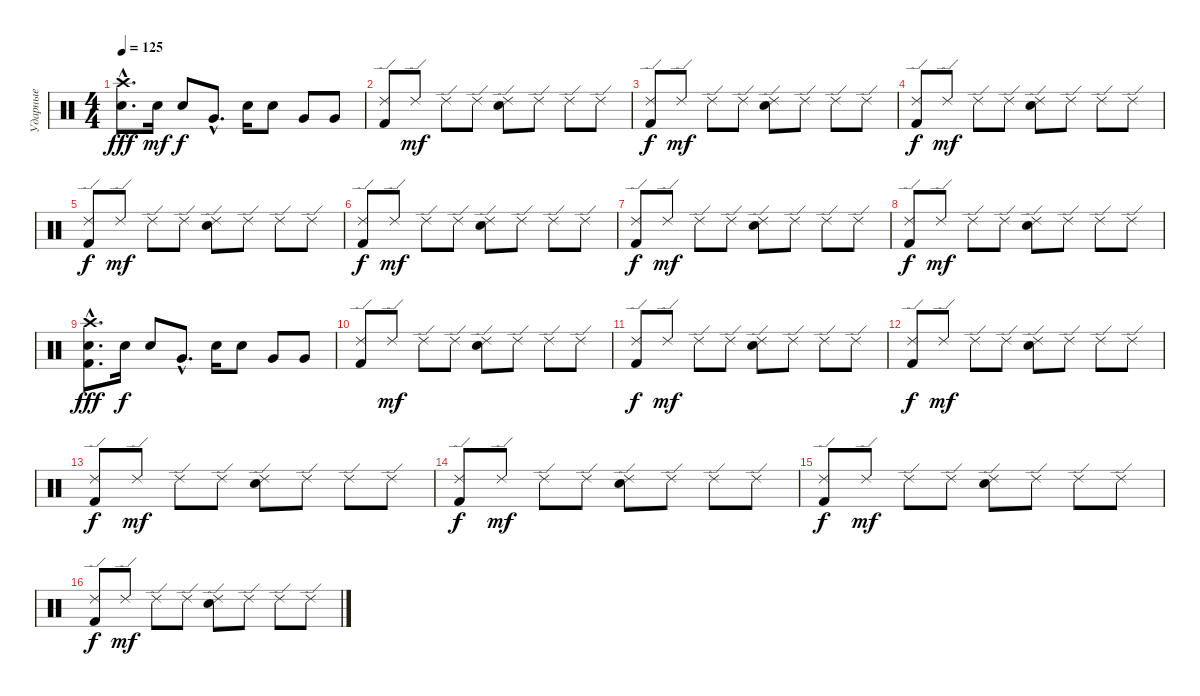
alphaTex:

\track ("Ударные" "Ударные") {instrument percussion}
\staff {score}
\articulation defaults
\ts (4 4)
\tempo 125
\clef neutral
\ks c
("Crash high (hit)"{hac} "Electric Snare (hit)"{hac}).8{d dy fff} "Electric Snare (hit)".16{dy mf} "Electric Snare (hit)".8{dy f} "Very Low Tom (hit)"{hac}.8{d} "Electric Snare (hit)".16 "Electric Snare (hit)".8 "Very Low Tom (hit)".8 "Very Low Tom (hit)".8 |
("Ride (edge) 2" "Kick (hit) 2").8 "Ride (edge) 2".8{dy mf} "Ride (edge) 2".8 "Ride (edge) 2".8 ("Ride (edge) 2" "Electric Snare (hit)").8 "Ride (edge) 2".8 "Ride (edge) 2".8 "Ride (edge) 2".8 |
("Ride (edge) 2" "Kick (hit) 2").8{dy f} "Ride (edge) 2".8{dy mf} "Ride (edge) 2".8 "Ride (edge) 2".8 ("Ride (edge) 2" "Electric Snare (hit)").8 "Ride (edge) 2".8 "Ride (edge) 2".8 "Ride (edge) 2".8 |
("Ride (edge) 2" "Kick (hit) 2").8{dy f} "Ride (edge) 2".8{dy mf} "Ride (edge) 2".8 "Ride (edge) 2".8 ("Ride (edge) 2" "Electric Snare (hit)").8 "Ride (edge) 2".8 "Ride (edge) 2".8 "Ride (edge) 2".8 |
("Ride (edge) 2" "Kick (hit) 2").8{dy f} "Ride (edge) 2".8{dy mf} "Ride (edge) 2".8 "Ride (edge) 2".8 ("Ride (edge) 2" "Electric Snare (hit)").8 "Ride (edge) 2".8 "Ride (edge) 2".8 "Ride (edge) 2".8 |
("Ride (edge) 2" "Kick (hit) 2").8{dy f} "Ride (edge) 2".8{dy mf} "Ride (edge) 2".8 "Ride (edge) 2".8 ("Ride (edge) 2" "Electric Snare (hit)").8 "Ride (edge) 2".8 "Ride (edge) 2".8 "Ride (edge) 2".8 |
("Ride (edge) 2" "Kick (hit) 2").8{dy f} "Ride (edge) 2".8{dy mf} "Ride (edge) 2".8 "Ride (edge) 2".8 ("Ride (edge) 2" "Electric Snare (hit)").8 "Ride (edge) 2".8 "Ride (edge) 2".8 "Ride (edge) 2".8 |
("Ride (edge) 2" "Kick (hit) 2").8{dy f} "Ride (edge) 2".8{dy mf} "Ride (edge) 2".8 "Ride (edge) 2".8 ("Ride (edge) 2" "Electric Snare (hit)").8 "Ride (edge) 2".8 "Ride (edge) 2".8 "Ride (edge) 2".8 |
("Crash high (hit)"{hac} "Electric Snare (hit)"{hac} "Kick (hit) 2"{hac}).8{d dy fff} "Electric Snare (hit)".16{dy f} "Electric Snare (hit)".8 "Very Low Tom (hit)"{hac}.8{d} "Electric Snare (hit)".16 "Electric Snare (hit)".8 "Very Low Tom (hit)".8 "Very Low Tom (hit)".8 |
("Ride (edge) 2" "Kick (hit) 2").8 "Ride (edge) 2".8{dy mf} "Ride (edge) 2".8 "Ride (edge) 2".8 ("Ride (edge) 2" "Electric Snare (hit)").8 "Ride (edge) 2".8 "Ride (edge) 2".8 "Ride (edge) 2".8 |
("Ride (edge) 2" "Kick (hit) 2").8{dy f} "Ride (edge) 2".8{dy mf} "Ride (edge) 2".8 "Ride (edge) 2".8 ("Ride (edge) 2" "Electric Snare (hit)").8 "Ride (edge) 2".8 "Ride (edge) 2".8 "Ride (edge) 2".8 |
("Ride (edge) 2" "Kick (hit) 2").8{dy f} "Ride (edge) 2".8{dy mf} "Ride (edge) 2".8 "Ride (edge) 2".8 ("Ride (edge) 2" "Electric Snare (hit)").8 "Ride (edge) 2".8 "Ride (edge) 2".8 "Ride (edge) 2".8 |
("Ride (edge) 2" "Kick (hit) 2").8{dy f} "Ride (edge) 2".8{dy mf} "Ride (edge) 2".8 "Ride (edge) 2".8 ("Ride (edge) 2" "Electric Snare (hit)").8 "Ride (edge) 2".8 "Ride (edge) 2".8 "Ride (edge) 2".8 |
("Ride (edge) 2" "Kick (hit) 2").8{dy f} "Ride (edge) 2".8{dy mf} "Ride (edge) 2".8 "Ride (edge) 2".8 ("Ride (edge) 2" "Electric Snare (hit)").8 "Ride (edge) 2".8 "Ride (edge) 2".8 "Ride (edge) 2".8 |
("Ride (edge) 2" "Kick (hit) 2").8{dy f} "Ride (edge) 2".8{dy mf} "Ride (edge) 2".8 "Ride (edge) 2".8 ("Ride (edge) 2" "Electric Snare (hit)").8 "Ride (edge) 2".8 "Ride (edge) 2".8 "Ride (edge) 2".8 |
("Ride (edge) 2" "Kick (hit) 2").8{dy f} "Ride (edge) 2".8{dy mf} "Ride (edge) 2".8 "Ride (edge) 2".8 ("Ride (edge) 2" "Electric Snare (hit)").8 "Ride (edge) 2".8 "Ride (edge) 2".8 "Ride (edge) 2".8
